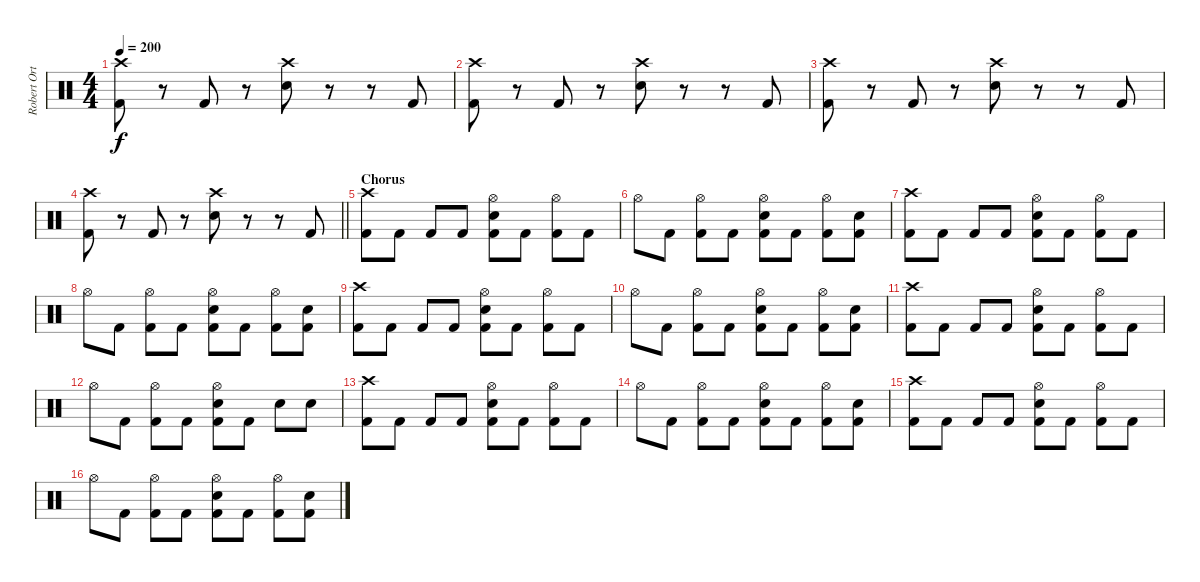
\track ("Robert Ortiz" "Robert Ort") {instrument percussion}
\staff {score}
\articulation defaults
\ts (4 4)
\tempo 200
\clef neutral
\ks c
("Crash high (hit)" "Kick (hit) 2").8{dy f} r.8 "Kick (hit) 2".8 r.8 ("Crash high (hit)" "Electric Snare (hit)").8 r.8 r.8 "Kick (hit) 2".8 |
("Crash high (hit)" "Kick (hit) 2").8 r.8 "Kick (hit) 2".8 r.8 ("Crash high (hit)" "Electric Snare (hit)").8 r.8 r.8 "Kick (hit) 2".8 |
("Crash high (hit)" "Kick (hit) 2").8 r.8 "Kick (hit) 2".8 r.8 ("Crash high (hit)" "Electric Snare (hit)").8 r.8 r.8 "Kick (hit) 2".8 |
\barLineRight lightlight
("Crash high (hit)" "Kick (hit) 2").8 r.8 "Kick (hit) 2".8 r.8 ("Crash high (hit)" "Electric Snare (hit)").8 r.8 r.8 "Kick (hit) 2".8 |
\section ("" "Chorus")
("Crash high (hit)" "Kick (hit) 2").8{volume 12} "Kick (hit) 2".8 "Kick (hit) 2".8 "Kick (hit) 2".8 ("Hi-Hat (open)" "Electric Snare (hit)" "Kick (hit) 2").8 "Kick (hit) 2".8 ("Hi-Hat (open)" "Kick (hit) 2").8 "Kick (hit) 2".8 |
"Hi-Hat (open)".8 "Kick (hit) 2".8 ("Hi-Hat (open)" "Kick (hit) 2").8 "Kick (hit) 2".8 ("Hi-Hat (open)" "Electric Snare (hit)" "Kick (hit) 2").8 "Kick (hit) 2".8 ("Hi-Hat (open)" "Kick (hit) 2").8 ("Electric Snare (hit)" "Kick (hit) 2").8 |
("Crash high (hit)" "Kick (hit) 2").8 "Kick (hit) 2".8 "Kick (hit) 2".8 "Kick (hit) 2".8 ("Hi-Hat (open)" "Electric Snare (hit)" "Kick (hit) 2").8 "Kick (hit) 2".8 ("Hi-Hat (open)" "Kick (hit) 2").8 "Kick (hit) 2".8 |
"Hi-Hat (open)".8 "Kick (hit) 2".8 ("Hi-Hat (open)" "Kick (hit) 2").8 "Kick (hit) 2".8 ("Hi-Hat (open)" "Electric Snare (hit)" "Kick (hit) 2").8 "Kick (hit) 2".8 ("Hi-Hat (open)" "Kick (hit) 2").8 ("Electric Snare (hit)" "Kick (hit) 2").8 |
("Crash high (hit)" "Kick (hit) 2").8 "Kick (hit) 2".8 "Kick (hit) 2".8 "Kick (hit) 2".8 ("Hi-Hat (open)" "Electric Snare (hit)" "Kick (hit) 2").8 "Kick (hit) 2".8 ("Hi-Hat (open)" "Kick (hit) 2").8 "Kick (hit) 2".8 |
"Hi-Hat (open)".8 "Kick (hit) 2".8 ("Hi-Hat (open)" "Kick (hit) 2").8 "Kick (hit) 2".8 ("Hi-Hat (open)" "Electric Snare (hit)" "Kick (hit) 2").8 "Kick (hit) 2".8 ("Hi-Hat (open)" "Kick (hit) 2").8 ("Electric Snare (hit)" "Kick (hit) 2").8 |
("Crash high (hit)" "Kick (hit) 2").8 "Kick (hit) 2".8 "Kick (hit) 2".8 "Kick (hit) 2".8 ("Hi-Hat (open)" "Electric Snare (hit)" "Kick (hit) 2").8 "Kick (hit) 2".8 ("Hi-Hat (open)" "Kick (hit) 2").8 "Kick (hit) 2".8 |
"Hi-Hat (open)".8 "Kick (hit) 2".8 ("Hi-Hat (open)" "Kick (hit) 2").8 "Kick (hit) 2".8 ("Hi-Hat (open)" "Electric Snare (hit)" "Kick (hit) 2").8 "Kick (hit) 2".8 "Electric Snare (hit)".8 "Electric Snare (hit)".8 |
("Crash high (hit)" "Kick (hit) 2").8{volume 12} "Kick (hit) 2".8 "Kick (hit) 2".8 "Kick (hit) 2".8 ("Hi-Hat (open)" "Electric Snare (hit)" "Kick (hit) 2").8 "Kick (hit) 2".8 ("Hi-Hat (open)" "Kick (hit) 2").8 "Kick (hit) 2".8 |
"Hi-Hat (open)".8 "Kick (hit) 2".8 ("Hi-Hat (open)" "Kick (hit) 2").8 "Kick (hit) 2".8 ("Hi-Hat (open)" "Electric Snare (hit)" "Kick (hit) 2").8 "Kick (hit) 2".8 ("Hi-Hat (open)" "Kick (hit) 2").8 ("Electric Snare (hit)" "Kick (hit) 2").8 |
("Crash high (hit)" "Kick (hit) 2").8 "Kick (hit) 2".8 "Kick (hit) 2".8 "Kick (hit) 2".8 ("Hi-Hat (open)" "Electric Snare (hit)" "Kick (hit) 2").8 "Kick (hit) 2".8 ("Hi-Hat (open)" "Kick (hit) 2").8 "Kick (hit) 2".8 |
"Hi-Hat (open)".8 "Kick (hit) 2".8 ("Hi-Hat (open)" "Kick (hit) 2").8 "Kick (hit) 2".8 ("Hi-Hat (open)" "Electric Snare (hit)" "Kick (hit) 2").8 "Kick (hit) 2".8 ("Hi-Hat (open)" "Kick (hit) 2").8 ("Electric Snare (hit)" "Kick (hit) 2").8
